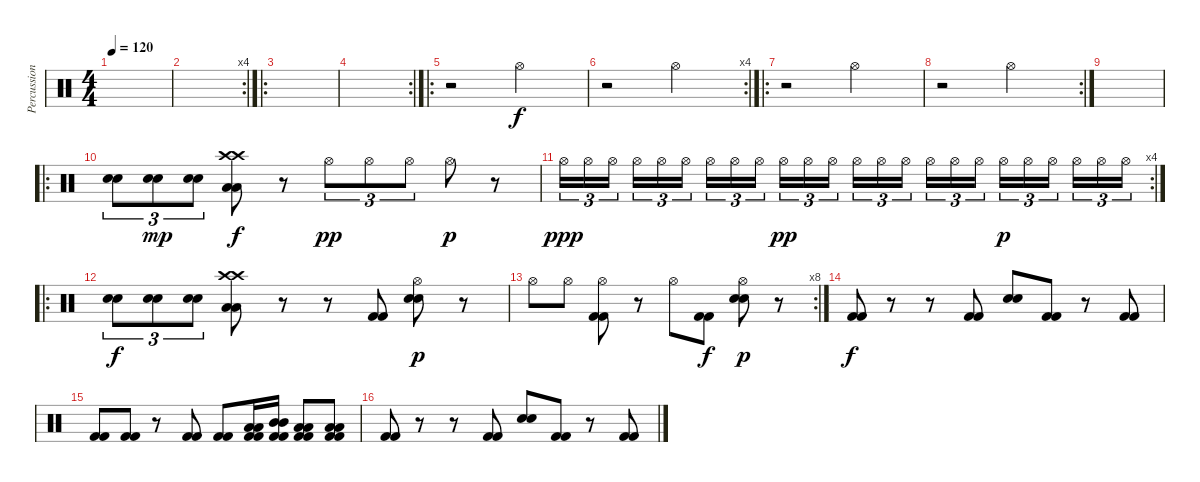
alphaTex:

\track ("Percussion" "Percussion") {instrument percussion}
\staff {score}
\articulation defaults
\ts (4 4)
\tempo 120
\clef neutral
\ks c
|
\rc 4
|
\ro
|
\rc 2
|
\ro
r.2 "Hi-Hat (open)".2 |
\rc 4
r.2 "Hi-Hat (open)".2 |
\ro
r.2 "Hi-Hat (open)".2 |
\rc 2
r.2 "Hi-Hat (open)".2 |
|
\ro
("Electric Snare (hit)" "Electric Snare (hit)").8{tu (3 2) dy f} ("Electric Snare (hit)" "Electric Snare (hit)").8{tu (3 2) dy mp} ("Electric Snare (hit)" "Electric Snare (hit)").8{tu (3 2)} ("Crash high (hit)" "Crash high (hit)" "Low Tom (hit)" "Low Tom (hit)").8{dy f} r.8 "Hi-Hat (open)".8{tu (3 2) dy pp} "Hi-Hat (open)".8{tu (3 2)} "Hi-Hat (open)".8{tu (3 2)} "Hi-Hat (open)".8{dy p} r.8 |
\rc 4 "Hi-Hat (open)".16{tu (3 2) dy ppp} "Hi-Hat (open)".16{tu (3 2)} "Hi-Hat (open)".16{tu (3 2)} "Hi-Hat (open)".16{tu (3 2)} "Hi-Hat (open)".16{tu (3 2)} "Hi-Hat (open)".16{tu (3 2)} "Hi-Hat (open)".16{tu (3 2)} "Hi-Hat (open)".16{tu (3 2)} "Hi-Hat (open)".16{tu (3 2)} "Hi-Hat (open)".16{tu (3 2) dy pp} "Hi-Hat (open)".16{tu (3 2)} "Hi-Hat (open)".16{tu (3 2)} "Hi-Hat (open)".16{tu (3 2)} "Hi-Hat (open)".16{tu (3 2)} "Hi-Hat (open)".16{tu (3 2)} "Hi-Hat (open)".16{tu (3 2)} "Hi-Hat (open)".16{tu (3 2)} "Hi-Hat (open)".16{tu (3 2)} "Hi-Hat (open)".16{tu (3 2) dy p} "Hi-Hat (open)".16{tu (3 2)} "Hi-Hat (open)".16{tu (3 2)} "Hi-Hat (open)".16{tu (3 2)} "Hi-Hat (open)".16{tu (3 2)} "Hi-Hat (open)".16{tu (3 2)}
|
\ro
("Electric Snare (hit)" "Electric Snare (hit)").8{tu (3 2) dy f} ("Electric Snare (hit)" "Electric Snare (hit)").8{tu (3 2)} ("Electric Snare (hit)" "Electric Snare (hit)").8{tu (3 2)} ("Crash high (hit)" "Crash high (hit)" "Low Tom (hit)" "Low Tom (hit)").8 r.8 r.8 ("Kick (hit) 2" "Kick (hit) 2").8 ("Hi-Hat (open)" "Electric Snare (hit)" "Electric Snare (hit)").8{dy p} r.8 |
\rc 8 "Hi-Hat (open)".8 "Hi-Hat (open)".8
("Hi-Hat (open)" "Kick (hit) 2" "Kick (hit) 2").8 r.8 "Hi-Hat (open)".8 ("Kick (hit) 2" "Kick (hit) 2").8{dy f} ("Hi-Hat (open)" "Electric Snare (hit)" "Electric Snare (hit)").8{dy p} r.8 |
("Kick (hit) 2" "Kick (hit) 2").8{dy f} r.8 r.8 ("Kick (hit) 2" "Kick (hit) 2").8 ("Electric Snare (hit)" "Electric Snare (hit)").8 ("Kick (hit) 2" "Kick (hit) 2").8 r.8 ("Kick (hit) 2" "Kick (hit) 2").8 |
("Kick (hit) 2" "Kick (hit) 2").8 ("Kick (hit) 2" "Kick (hit) 2").8 r.8 ("Kick (hit) 2" "Kick (hit) 2").8 ("Kick (hit) 2" "Kick (hit) 2").8 ("Low Tom (hit)" "Low Tom (hit)" "Kick (hit) 2" "Kick (hit) 2").16 ("Mid Tom (hit)" "Mid Tom (hit)" "Kick (hit) 2" "Kick (hit) 2").16 ("Low Tom (hit)" "Low Tom (hit)" "Kick (hit) 2" "Kick (hit) 2").8 ("Low Tom (hit)" "Low Tom (hit)" "Kick (hit) 2" "Kick (hit) 2").8 |
("Kick (hit) 2" "Kick (hit) 2").8 r.8 r.8 ("Kick (hit) 2" "Kick (hit) 2").8 ("Electric Snare (hit)" "Electric Snare (hit)").8 ("Kick (hit) 2" "Kick (hit) 2").8 r.8 ("Kick (hit) 2" "Kick (hit) 2").8
